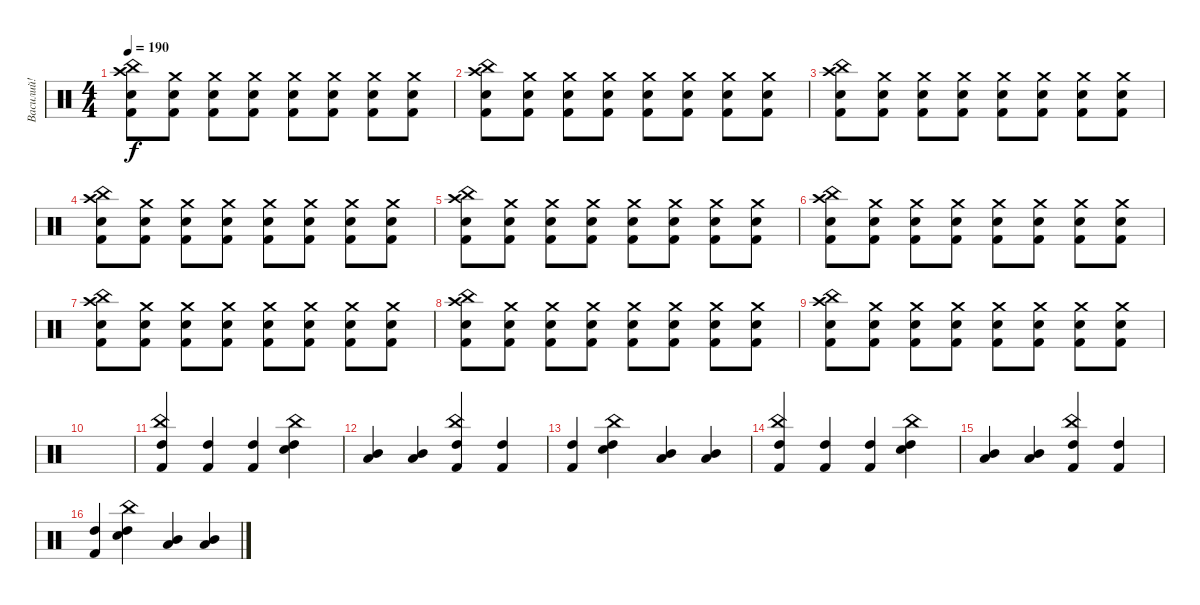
\track ("Василий!" "Василий!") {instrument percussion}
\staff {score}
\articulation defaults
\ts (4 4)
\tempo 190
\clef neutral
\ks c
("Electric Snare (hit)" "Kick (hit) 2" "China (hit)" "Crash high (hit)").8{dy f} ("Electric Snare (hit)" "Kick (hit) 2" "Crash medium (hit)").8 ("Electric Snare (hit)" "Kick (hit) 2" "Crash medium (hit)").8 ("Electric Snare (hit)" "Kick (hit) 2" "Crash medium (hit)").8 ("Electric Snare (hit)" "Kick (hit) 2" "Crash medium (hit)").8 ("Electric Snare (hit)" "Kick (hit) 2" "Crash medium (hit)").8 ("Electric Snare (hit)" "Kick (hit) 2" "Crash medium (hit)").8 ("Electric Snare (hit)" "Kick (hit) 2" "Crash medium (hit)").8 |
("Electric Snare (hit)" "Kick (hit) 2" "China (hit)" "Crash high (hit)").8{volume 3} ("Electric Snare (hit)" "Kick (hit) 2" "Crash medium (hit)").8 ("Electric Snare (hit)" "Kick (hit) 2" "Crash medium (hit)").8 ("Electric Snare (hit)" "Kick (hit) 2" "Crash medium (hit)").8 ("Electric Snare (hit)" "Kick (hit) 2" "Crash medium (hit)").8 ("Electric Snare (hit)" "Kick (hit) 2" "Crash medium (hit)").8 ("Electric Snare (hit)" "Kick (hit) 2" "Crash medium (hit)").8 ("Electric Snare (hit)" "Kick (hit) 2" "Crash medium (hit)").8 |
("Electric Snare (hit)" "Kick (hit) 2" "China (hit)" "Crash high (hit)").8 ("Electric Snare (hit)" "Kick (hit) 2" "Crash medium (hit)").8 ("Electric Snare (hit)" "Kick (hit) 2" "Crash medium (hit)").8 ("Electric Snare (hit)" "Kick (hit) 2" "Crash medium (hit)").8 ("Electric Snare (hit)" "Kick (hit) 2" "Crash medium (hit)").8 ("Electric Snare (hit)" "Kick (hit) 2" "Crash medium (hit)").8 ("Electric Snare (hit)" "Kick (hit) 2" "Crash medium (hit)").8 ("Electric Snare (hit)" "Kick (hit) 2" "Crash medium (hit)").8 |
("Electric Snare (hit)" "Kick (hit) 2" "China (hit)" "Crash high (hit)").8 ("Electric Snare (hit)" "Kick (hit) 2" "Crash medium (hit)").8 ("Electric Snare (hit)" "Kick (hit) 2" "Crash medium (hit)").8 ("Electric Snare (hit)" "Kick (hit) 2" "Crash medium (hit)").8 ("Electric Snare (hit)" "Kick (hit) 2" "Crash medium (hit)").8 ("Electric Snare (hit)" "Kick (hit) 2" "Crash medium (hit)").8 ("Electric Snare (hit)" "Kick (hit) 2" "Crash medium (hit)").8 ("Electric Snare (hit)" "Kick (hit) 2" "Crash medium (hit)").8 |
("Electric Snare (hit)" "Kick (hit) 2" "China (hit)" "Crash high (hit)").8 ("Electric Snare (hit)" "Kick (hit) 2" "Crash medium (hit)").8 ("Electric Snare (hit)" "Kick (hit) 2" "Crash medium (hit)").8 ("Electric Snare (hit)" "Kick (hit) 2" "Crash medium (hit)").8 ("Electric Snare (hit)" "Kick (hit) 2" "Crash medium (hit)").8 ("Electric Snare (hit)" "Kick (hit) 2" "Crash medium (hit)").8 ("Electric Snare (hit)" "Kick (hit) 2" "Crash medium (hit)").8 ("Electric Snare (hit)" "Kick (hit) 2" "Crash medium (hit)").8 |
("Electric Snare (hit)" "Kick (hit) 2" "China (hit)" "Crash high (hit)").8 ("Electric Snare (hit)" "Kick (hit) 2" "Crash medium (hit)").8 ("Electric Snare (hit)" "Kick (hit) 2" "Crash medium (hit)").8 ("Electric Snare (hit)" "Kick (hit) 2" "Crash medium (hit)").8 ("Electric Snare (hit)" "Kick (hit) 2" "Crash medium (hit)").8 ("Electric Snare (hit)" "Kick (hit) 2" "Crash medium (hit)").8 ("Electric Snare (hit)" "Kick (hit) 2" "Crash medium (hit)").8 ("Electric Snare (hit)" "Kick (hit) 2" "Crash medium (hit)").8 |
("Electric Snare (hit)" "Kick (hit) 2" "China (hit)" "Crash high (hit)").8 ("Electric Snare (hit)" "Kick (hit) 2" "Crash medium (hit)").8 ("Electric Snare (hit)" "Kick (hit) 2" "Crash medium (hit)").8 ("Electric Snare (hit)" "Kick (hit) 2" "Crash medium (hit)").8 ("Electric Snare (hit)" "Kick (hit) 2" "Crash medium (hit)").8 ("Electric Snare (hit)" "Kick (hit) 2" "Crash medium (hit)").8 ("Electric Snare (hit)" "Kick (hit) 2" "Crash medium (hit)").8 ("Electric Snare (hit)" "Kick (hit) 2" "Crash medium (hit)").8 |
("Electric Snare (hit)" "Kick (hit) 2" "China (hit)" "Crash high (hit)").8 ("Electric Snare (hit)" "Kick (hit) 2" "Crash medium (hit)").8 ("Electric Snare (hit)" "Kick (hit) 2" "Crash medium (hit)").8 ("Electric Snare (hit)" "Kick (hit) 2" "Crash medium (hit)").8 ("Electric Snare (hit)" "Kick (hit) 2" "Crash medium (hit)").8 ("Electric Snare (hit)" "Kick (hit) 2" "Crash medium (hit)").8 ("Electric Snare (hit)" "Kick (hit) 2" "Crash medium (hit)").8 ("Electric Snare (hit)" "Kick (hit) 2" "Crash medium (hit)").8 |
("Electric Snare (hit)" "Kick (hit) 2" "China (hit)" "Crash high (hit)").8 ("Electric Snare (hit)" "Kick (hit) 2" "Crash medium (hit)").8 ("Electric Snare (hit)" "Kick (hit) 2" "Crash medium (hit)").8 ("Electric Snare (hit)" "Kick (hit) 2" "Crash medium (hit)").8 ("Electric Snare (hit)" "Kick (hit) 2" "Crash medium (hit)").8 ("Electric Snare (hit)" "Kick (hit) 2" "Crash medium (hit)").8 ("Electric Snare (hit)" "Kick (hit) 2" "Crash medium (hit)").8 ("Electric Snare (hit)" "Kick (hit) 2" "Crash medium (hit)").8 |
|
("Kick (hit) 2" "High Tom (hit)" "China (hit)").4 ("Kick (hit) 2" "High Tom (hit)").4 ("Kick (hit) 2" "High Tom (hit)").4 ("Electric Snare (hit)" "High Tom (hit)" "China (hit)").4 |
("Low Tom (hit)" "Mid Tom (hit)").4 ("Mid Tom (hit)" "Low Tom (hit)").4 ("Kick (hit) 2" "High Tom (hit)" "China (hit)").4 ("Kick (hit) 2" "High Tom (hit)").4 |
("Kick (hit) 2" "High Tom (hit)").4 ("Electric Snare (hit)" "High Tom (hit)" "China (hit)").4 ("Low Tom (hit)" "Mid Tom (hit)").4 ("Mid Tom (hit)" "Low Tom (hit)").4 |
("Kick (hit) 2" "High Tom (hit)" "China (hit)").4 ("Kick (hit) 2" "High Tom (hit)").4 ("Kick (hit) 2" "High Tom (hit)").4 ("Electric Snare (hit)" "High Tom (hit)" "China (hit)").4 |
("Low Tom (hit)" "Mid Tom (hit)").4 ("Mid Tom (hit)" "Low Tom (hit)").4 ("Kick (hit) 2" "High Tom (hit)" "China (hit)").4 ("Kick (hit) 2" "High Tom (hit)").4 |
("Kick (hit) 2" "High Tom (hit)").4 ("Electric Snare (hit)" "High Tom (hit)" "China (hit)").4 ("Low Tom (hit)" "Mid Tom (hit)").4 ("Mid Tom (hit)" "Low Tom (hit)").4
